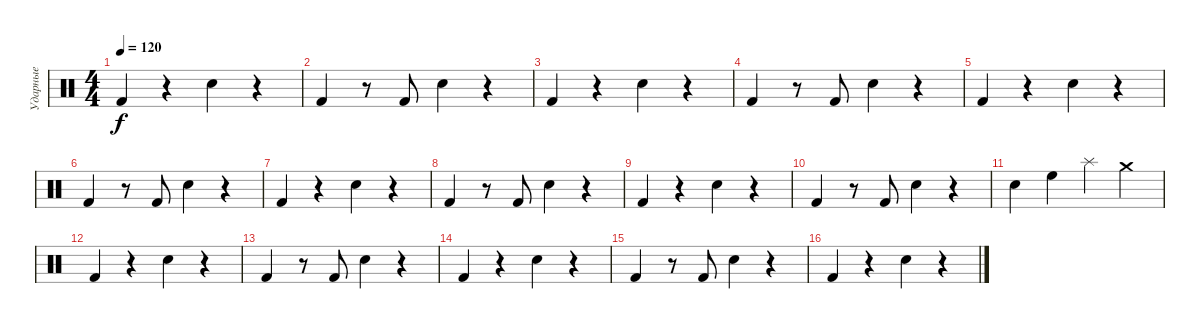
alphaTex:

\track ("Ударные" "Ударные") {instrument percussion}
\staff {score}
\articulation defaults
\ts (4 4)
\tempo 120
\clef neutral
\ks c "Kick (hit) 2".4{dy f}
r.4 "Electric Snare (hit)".4 r.4 |
"Kick (hit) 2".4 r.8 "Kick (hit) 2".8 "Electric Snare (hit)".4 r.4 |
"Kick (hit) 2".4 r.4 "Electric Snare (hit)".4 r.4 |
"Kick (hit) 2".4 r.8 "Kick (hit) 2".8 "Electric Snare (hit)".4 r.4 |
"Kick (hit) 2".4 r.4 "Electric Snare (hit)".4 r.4 |
"Kick (hit) 2".4 r.8 "Kick (hit) 2".8 "Electric Snare (hit)".4 r.4 |
"Kick (hit) 2".4 r.4 "Electric Snare (hit)".4 r.4 |
"Kick (hit) 2".4 r.8 "Kick (hit) 2".8 "Electric Snare (hit)".4 r.4 |
"Kick (hit) 2".4 r.4 "Electric Snare (hit)".4 r.4 |
"Kick (hit) 2".4 r.8 "Kick (hit) 2".8 "Electric Snare (hit)".4 r.4 |
"Snare (hit) 2".4 "High Floor Tom (hit)".4 "Splash (hit)".4 "Crash medium (hit)".4 |
"Kick (hit) 2".4 r.4 "Electric Snare (hit)".4 r.4 |
"Kick (hit) 2".4 r.8 "Kick (hit) 2".8 "Electric Snare (hit)".4 r.4 |
"Kick (hit) 2".4 r.4 "Electric Snare (hit)".4 r.4 |
"Kick (hit) 2".4 r.8 "Kick (hit) 2".8 "Electric Snare (hit)".4 r.4 |
"Kick (hit) 2".4 r.4 "Electric Snare (hit)".4 r.4
